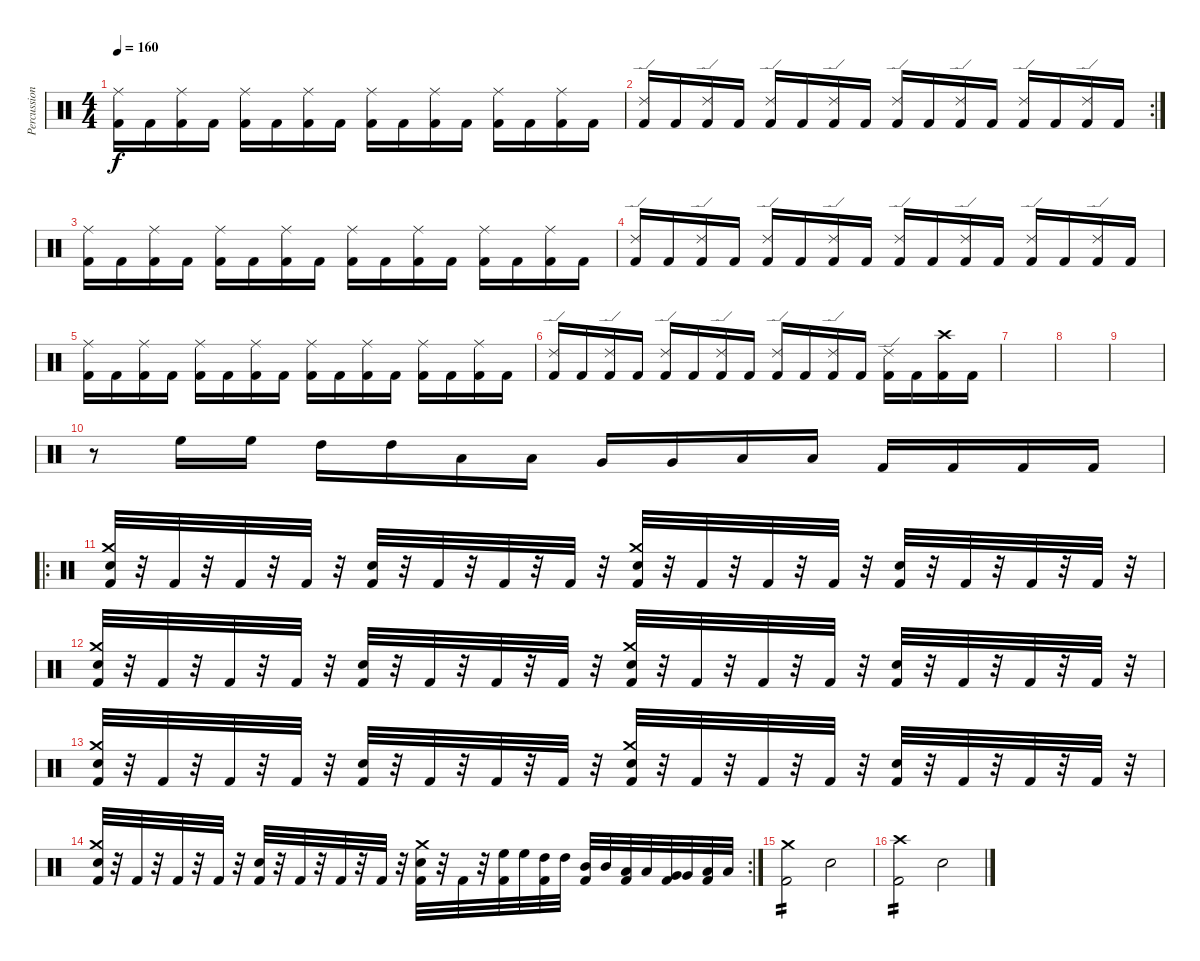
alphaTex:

\track ("Percussion" "Percussion") {instrument percussion}
\staff {score}
\articulation defaults
\ts (4 4)
\tempo 160
\clef neutral
\ks c
("Ride (middle)" "Kick (hit) 2").16{dy f} "Kick (hit) 2".16 ("Ride (middle)" "Kick (hit) 2").16 "Kick (hit) 2".16 ("Ride (middle)" "Kick (hit) 2").16 "Kick (hit) 2".16 ("Ride (middle)" "Kick (hit) 2").16 "Kick (hit) 2".16 ("Ride (middle)" "Kick (hit) 2").16 "Kick (hit) 2".16 ("Ride (middle)" "Kick (hit) 2").16 "Kick (hit) 2".16 ("Ride (middle)" "Kick (hit) 2").16 "Kick (hit) 2".16 ("Ride (middle)" "Kick (hit) 2").16 "Kick (hit) 2".16 |
\rc 2
("Ride (edge) 2" "Kick (hit) 2").16 "Kick (hit) 2".16 ("Ride (edge) 2" "Kick (hit) 2").16 "Kick (hit) 2".16 ("Ride (edge) 2" "Kick (hit) 2").16 "Kick (hit) 2".16 ("Ride (edge) 2" "Kick (hit) 2").16 "Kick (hit) 2".16 ("Ride (edge) 2" "Kick (hit) 2").16 "Kick (hit) 2".16 ("Ride (edge) 2" "Kick (hit) 2").16 "Kick (hit) 2".16 ("Ride (edge) 2" "Kick (hit) 2").16 "Kick (hit) 2".16 ("Ride (edge) 2" "Kick (hit) 2").16 "Kick (hit) 2".16 |
("Ride (middle)" "Kick (hit) 2").16 "Kick (hit) 2".16 ("Ride (middle)" "Kick (hit) 2").16 "Kick (hit) 2".16 ("Ride (middle)" "Kick (hit) 2").16 "Kick (hit) 2".16 ("Ride (middle)" "Kick (hit) 2").16 "Kick (hit) 2".16 ("Ride (middle)" "Kick (hit) 2").16 "Kick (hit) 2".16 ("Ride (middle)" "Kick (hit) 2").16 "Kick (hit) 2".16 ("Ride (middle)" "Kick (hit) 2").16 "Kick (hit) 2".16 ("Ride (middle)" "Kick (hit) 2").16 "Kick (hit) 2".16 |
("Ride (edge) 2" "Kick (hit) 2").16 "Kick (hit) 2".16 ("Ride (edge) 2" "Kick (hit) 2").16 "Kick (hit) 2".16 ("Ride (edge) 2" "Kick (hit) 2").16 "Kick (hit) 2".16 ("Ride (edge) 2" "Kick (hit) 2").16 "Kick (hit) 2".16 ("Ride (edge) 2" "Kick (hit) 2").16 "Kick (hit) 2".16 ("Ride (edge) 2" "Kick (hit) 2").16 "Kick (hit) 2".16 ("Ride (edge) 2" "Kick (hit) 2").16 "Kick (hit) 2".16 ("Ride (edge) 2" "Kick (hit) 2").16 "Kick (hit) 2".16 |
("Ride (middle)" "Kick (hit) 2").16 "Kick (hit) 2".16 ("Ride (middle)" "Kick (hit) 2").16 "Kick (hit) 2".16 ("Ride (middle)" "Kick (hit) 2").16 "Kick (hit) 2".16 ("Ride (middle)" "Kick (hit) 2").16 "Kick (hit) 2".16 ("Ride (middle)" "Kick (hit) 2").16 "Kick (hit) 2".16 ("Ride (middle)" "Kick (hit) 2").16 "Kick (hit) 2".16 ("Ride (middle)" "Kick (hit) 2").16 "Kick (hit) 2".16 ("Ride (middle)" "Kick (hit) 2").16 "Kick (hit) 2".16 |
("Ride (edge) 2" "Kick (hit) 2").16 "Kick (hit) 2".16 ("Ride (edge) 2" "Kick (hit) 2").16 "Kick (hit) 2".16 ("Ride (edge) 2" "Kick (hit) 2").16 "Kick (hit) 2".16 ("Ride (edge) 2" "Kick (hit) 2").16 "Kick (hit) 2".16 ("Ride (edge) 2" "Kick (hit) 2").16 "Kick (hit) 2".16 ("Ride (edge) 2" "Kick (hit) 2").16 "Kick (hit) 2".16 ("Ride (edge) 2" "Kick (hit) 2").16 "Kick (hit) 2".16 ("Crash high (hit)" "Kick (hit) 2").16 "Kick (hit) 2".16 |
|
|
|
r.8 "High Floor Tom (hit)".16 "High Floor Tom (hit)".16 "High Tom (hit)".16 "High Tom (hit)".16 "Low Tom (hit)".16 "Low Tom (hit)".16 "Very Low Tom (hit)".16 "Very Low Tom (hit)".16 "Low Floor Tom (hit)".16 "Low Floor Tom (hit)".16 "Kick (hit) 2".16 "Kick (hit) 2".16 "Kick (hit) 2".16 "Kick (hit) 2".16 |
\ro
("Crash medium (hit)" "Snare (hit) 2" "Kick (hit) 2").32 r.32 "Kick (hit) 2".32 r.32 "Kick (hit) 2".32 r.32 "Kick (hit) 2".32 r.32 ("Snare (hit) 2" "Kick (hit) 2").32 r.32 "Kick (hit) 2".32 r.32 "Kick (hit) 2".32 r.32 "Kick (hit) 2".32 r.32 ("Crash medium (hit)" "Snare (hit) 2" "Kick (hit) 2").32 r.32 "Kick (hit) 2".32 r.32 "Kick (hit) 2".32 r.32 "Kick (hit) 2".32 r.32 ("Snare (hit) 2" "Kick (hit) 2").32 r.32 "Kick (hit) 2".32 r.32 "Kick (hit) 2".32 r.32 "Kick (hit) 2".32 r.32 |
("Crash medium (hit)" "Snare (hit) 2" "Kick (hit) 2").32 r.32 "Kick (hit) 2".32 r.32 "Kick (hit) 2".32 r.32 "Kick (hit) 2".32 r.32 ("Snare (hit) 2" "Kick (hit) 2").32 r.32 "Kick (hit) 2".32 r.32 "Kick (hit) 2".32 r.32 "Kick (hit) 2".32 r.32 ("Crash medium (hit)" "Snare (hit) 2" "Kick (hit) 2").32 r.32 "Kick (hit) 2".32 r.32 "Kick (hit) 2".32 r.32 "Kick (hit) 2".32 r.32 ("Snare (hit) 2" "Kick (hit) 2").32 r.32 "Kick (hit) 2".32 r.32 "Kick (hit) 2".32 r.32 "Kick (hit) 2".32 r.32 |
("Crash medium (hit)" "Snare (hit) 2" "Kick (hit) 2").32 r.32 "Kick (hit) 2".32 r.32 "Kick (hit) 2".32 r.32 "Kick (hit) 2".32 r.32 ("Snare (hit) 2" "Kick (hit) 2").32 r.32 "Kick (hit) 2".32 r.32 "Kick (hit) 2".32 r.32 "Kick (hit) 2".32 r.32 ("Crash medium (hit)" "Snare (hit) 2" "Kick (hit) 2").32 r.32 "Kick (hit) 2".32 r.32 "Kick (hit) 2".32 r.32 "Kick (hit) 2".32 r.32 ("Snare (hit) 2" "Kick (hit) 2").32 r.32 "Kick (hit) 2".32 r.32 "Kick (hit) 2".32 r.32 "Kick (hit) 2".32 r.32 |
\rc 2
("Crash medium (hit)" "Snare (hit) 2" "Kick (hit) 2").32 r.32 "Kick (hit) 2".32 r.32 "Kick (hit) 2".32 r.32 "Kick (hit) 2".32 r.32 ("Snare (hit) 2" "Kick (hit) 2").32 r.32 "Kick (hit) 2".32 r.32 "Kick (hit) 2".32 r.32 "Kick (hit) 2".32 r.32 ("Crash medium (hit)" "Snare (hit) 2" "Kick (hit) 2").32 r.32 "Kick (hit) 2".32 r.32 ("High Floor Tom (hit)" "Kick (hit) 2").32 "High Floor Tom (hit)".32 ("High Tom (hit)" "Kick (hit) 2").32 "High Tom (hit)".32 ("Mid Tom (hit)" "Kick (hit) 2").32 "Mid Tom (hit)".32 ("Low Tom (hit)" "Kick (hit) 2").32 "Low Tom (hit)".32 ("Very Low Tom (hit)" "Kick (hit) 2").32 "Very Low Tom (hit)".32 ("Low Floor Tom (hit)" "Kick (hit) 2").32 "Low Floor Tom (hit)".32 |
("Crash medium (hit)" "Kick (hit) 2").2{tp 2} "Snare (hit) 2".2 |
("Crash high (hit)" "Kick (hit) 2").2{tp 2} "Snare (hit) 2".2
